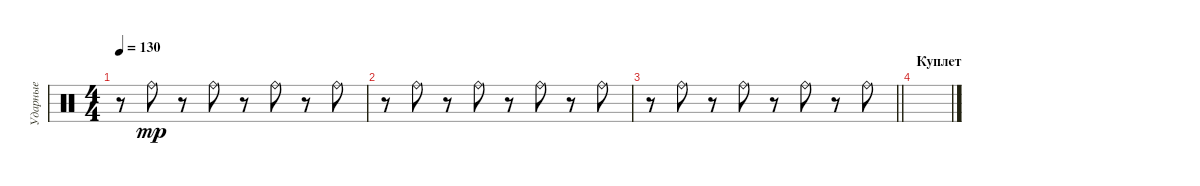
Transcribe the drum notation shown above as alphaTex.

\track ("Ударные" "Ударные") {instrument percussion}
\staff {score}
\articulation defaults
\ts (4 4)
\tempo 130
\clef neutral
\ks c
r.8{dy mp} "Ride (bell)".8 r.8 "Ride (bell)".8 r.8 "Ride (bell)".8 r.8 "Ride (bell)".8 |
r.8 "Ride (bell)".8 r.8 "Ride (bell)".8 r.8 "Ride (bell)".8 r.8 "Ride (bell)".8 |
\barLineRight lightlight
r.8 "Ride (bell)".8 r.8 "Ride (bell)".8 r.8 "Ride (bell)".8 r.8 "Ride (bell)".8 |
\section ("" "Куплет")
